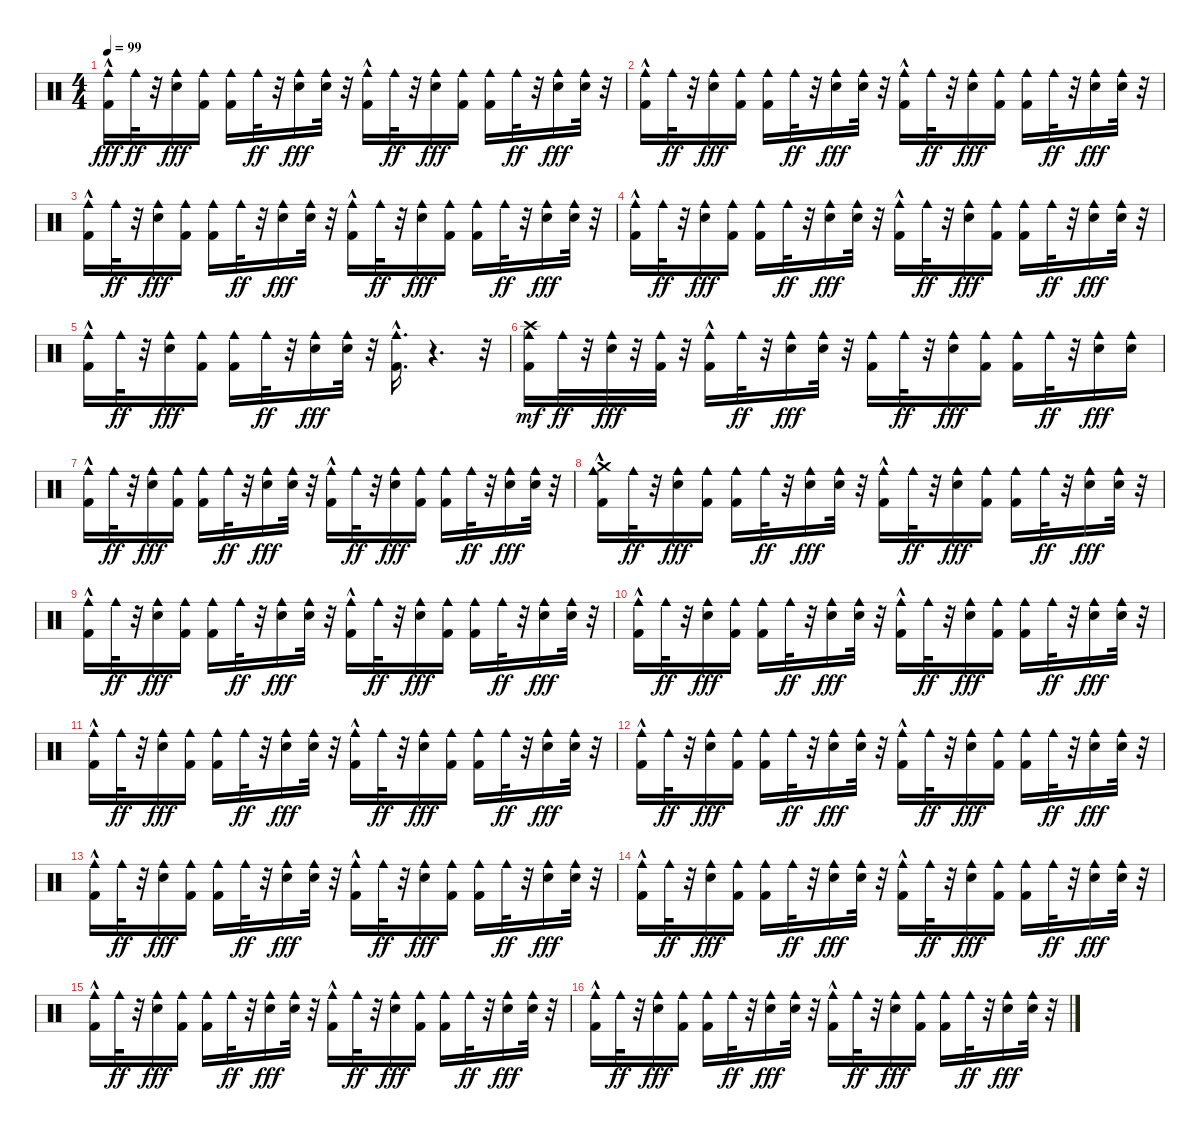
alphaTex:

\track "" {instrument percussion}
\staff {score}
\articulation defaults
\ts (4 4)
\tempo 99
\clef neutral
\ks c
("Cowbell medium (hit)" "Kick (hit) 2"{hac}).16{dy fff} "Cowbell medium (hit)".32{dy ff} r.32 ("Cowbell medium (hit)" "Electric Snare (hit)").16{dy fff} ("Cowbell medium (hit)" "Kick (hit) 2").16 ("Cowbell medium (hit)" "Kick (hit) 2").16 "Cowbell medium (hit)".32{dy ff} r.32 ("Cowbell medium (hit)" "Electric Snare (hit)").16{dy fff} ("Cowbell medium (hit)" "Electric Snare (hit)").32 r.32 ("Cowbell medium (hit)" "Kick (hit) 2"{hac}).16 "Cowbell medium (hit)".32{dy ff} r.32 ("Cowbell medium (hit)" "Electric Snare (hit)").16{dy fff} ("Cowbell medium (hit)" "Kick (hit) 2").16 ("Cowbell medium (hit)" "Kick (hit) 2").16 "Cowbell medium (hit)".32{dy ff} r.32 ("Cowbell medium (hit)" "Electric Snare (hit)").16{dy fff} ("Cowbell medium (hit)" "Electric Snare (hit)").32 r.32 |
("Cowbell medium (hit)" "Kick (hit) 2"{hac}).16 "Cowbell medium (hit)".32{dy ff} r.32 ("Cowbell medium (hit)" "Electric Snare (hit)").16{dy fff} ("Cowbell medium (hit)" "Kick (hit) 2").16 ("Cowbell medium (hit)" "Kick (hit) 2").16 "Cowbell medium (hit)".32{dy ff} r.32 ("Cowbell medium (hit)" "Electric Snare (hit)").16{dy fff} ("Cowbell medium (hit)" "Electric Snare (hit)").32 r.32 ("Cowbell medium (hit)" "Kick (hit) 2"{hac}).16 "Cowbell medium (hit)".32{dy ff} r.32 ("Cowbell medium (hit)" "Electric Snare (hit)").16{dy fff} ("Cowbell medium (hit)" "Kick (hit) 2").16 ("Cowbell medium (hit)" "Kick (hit) 2").16 "Cowbell medium (hit)".32{dy ff} r.32 ("Cowbell medium (hit)" "Electric Snare (hit)").16{dy fff} ("Cowbell medium (hit)" "Electric Snare (hit)").32 r.32 |
("Cowbell medium (hit)" "Kick (hit) 2"{hac}).16 "Cowbell medium (hit)".32{dy ff} r.32 ("Cowbell medium (hit)" "Electric Snare (hit)").16{dy fff} ("Cowbell medium (hit)" "Kick (hit) 2").16 ("Cowbell medium (hit)" "Kick (hit) 2").16 "Cowbell medium (hit)".32{dy ff} r.32 ("Cowbell medium (hit)" "Electric Snare (hit)").16{dy fff} ("Cowbell medium (hit)" "Electric Snare (hit)").32 r.32 ("Cowbell medium (hit)" "Kick (hit) 2"{hac}).16 "Cowbell medium (hit)".32{dy ff} r.32 ("Cowbell medium (hit)" "Electric Snare (hit)").16{dy fff} ("Cowbell medium (hit)" "Kick (hit) 2").16 ("Cowbell medium (hit)" "Kick (hit) 2").16 "Cowbell medium (hit)".32{dy ff} r.32 ("Cowbell medium (hit)" "Electric Snare (hit)").16{dy fff} ("Cowbell medium (hit)" "Electric Snare (hit)").32 r.32 |
("Cowbell medium (hit)" "Kick (hit) 2"{hac}).16 "Cowbell medium (hit)".32{dy ff} r.32 ("Cowbell medium (hit)" "Electric Snare (hit)").16{dy fff} ("Cowbell medium (hit)" "Kick (hit) 2").16 ("Cowbell medium (hit)" "Kick (hit) 2").16 "Cowbell medium (hit)".32{dy ff} r.32 ("Cowbell medium (hit)" "Electric Snare (hit)").16{dy fff} ("Cowbell medium (hit)" "Electric Snare (hit)").32 r.32 ("Cowbell medium (hit)" "Kick (hit) 2"{hac}).16 "Cowbell medium (hit)".32{dy ff} r.32 ("Cowbell medium (hit)" "Electric Snare (hit)").16{dy fff} ("Cowbell medium (hit)" "Kick (hit) 2").16 ("Cowbell medium (hit)" "Kick (hit) 2").16 "Cowbell medium (hit)".32{dy ff} r.32 ("Cowbell medium (hit)" "Electric Snare (hit)").16{dy fff} ("Cowbell medium (hit)" "Electric Snare (hit)").32 r.32 |
("Cowbell medium (hit)" "Kick (hit) 2"{hac}).16 "Cowbell medium (hit)".32{dy ff} r.32 ("Cowbell medium (hit)" "Electric Snare (hit)").16{dy fff} ("Cowbell medium (hit)" "Kick (hit) 2").16 ("Cowbell medium (hit)" "Kick (hit) 2").16 "Cowbell medium (hit)".32{dy ff} r.32 ("Cowbell medium (hit)" "Electric Snare (hit)").16{dy fff} ("Cowbell medium (hit)" "Electric Snare (hit)").32 r.32 ("Cowbell medium (hit)" "Kick (hit) 2"{hac}).16{d} r.4{d} r.32 |
("Cowbell medium (hit)" "Kick (hit) 2" "Crash high (hit)").16{dy mf} "Cowbell medium (hit)".32{dy ff} r.32 ("Cowbell medium (hit)" "Electric Snare (hit)").32{dy fff} r.32 ("Cowbell medium (hit)" "Kick (hit) 2").32 r.32 ("Cowbell medium (hit)" "Kick (hit) 2"{hac}).16 "Cowbell medium (hit)".32{dy ff} r.32 ("Cowbell medium (hit)" "Electric Snare (hit)").16{dy fff} ("Cowbell medium (hit)" "Electric Snare (hit)").32 r.32 ("Cowbell medium (hit)" "Kick (hit) 2").16 "Cowbell medium (hit)".32{dy ff} r.32 ("Cowbell medium (hit)" "Electric Snare (hit)").16{dy fff} ("Cowbell medium (hit)" "Kick (hit) 2").16 ("Cowbell medium (hit)" "Kick (hit) 2").16 "Cowbell medium (hit)".32{dy ff} r.32 ("Cowbell medium (hit)" "Electric Snare (hit)").16{dy fff} ("Cowbell medium (hit)" "Electric Snare (hit)").16 |
("Cowbell medium (hit)" "Kick (hit) 2"{hac}).16 "Cowbell medium (hit)".32{dy ff} r.32 ("Cowbell medium (hit)" "Electric Snare (hit)").16{dy fff} ("Cowbell medium (hit)" "Kick (hit) 2").16 ("Cowbell medium (hit)" "Kick (hit) 2").16 "Cowbell medium (hit)".32{dy ff} r.32 ("Cowbell medium (hit)" "Electric Snare (hit)").16{dy fff} ("Cowbell medium (hit)" "Electric Snare (hit)").32 r.32 ("Cowbell medium (hit)" "Kick (hit) 2"{hac}).16 "Cowbell medium (hit)".32{dy ff} r.32 ("Cowbell medium (hit)" "Electric Snare (hit)").16{dy fff} ("Cowbell medium (hit)" "Kick (hit) 2").16 ("Cowbell medium (hit)" "Kick (hit) 2").16 "Cowbell medium (hit)".32{dy ff} r.32 ("Cowbell medium (hit)" "Electric Snare (hit)").16{dy fff} ("Cowbell medium (hit)" "Electric Snare (hit)").32 r.32 |
("Cowbell medium (hit)" "Kick (hit) 2"{hac} "Crash medium (hit)"{hac}).16 "Cowbell medium (hit)".32{dy ff} r.32 ("Cowbell medium (hit)" "Electric Snare (hit)").16{dy fff} ("Cowbell medium (hit)" "Kick (hit) 2").16 ("Cowbell medium (hit)" "Kick (hit) 2").16 "Cowbell medium (hit)".32{dy ff} r.32 ("Cowbell medium (hit)" "Electric Snare (hit)").16{dy fff} ("Cowbell medium (hit)" "Electric Snare (hit)").32 r.32 ("Cowbell medium (hit)" "Kick (hit) 2"{hac}).16 "Cowbell medium (hit)".32{dy ff} r.32 ("Cowbell medium (hit)" "Electric Snare (hit)").16{dy fff} ("Cowbell medium (hit)" "Kick (hit) 2").16 ("Cowbell medium (hit)" "Kick (hit) 2").16 "Cowbell medium (hit)".32{dy ff} r.32 ("Cowbell medium (hit)" "Electric Snare (hit)").16{dy fff} ("Cowbell medium (hit)" "Electric Snare (hit)").32 r.32 |
("Cowbell medium (hit)" "Kick (hit) 2"{hac}).16 "Cowbell medium (hit)".32{dy ff} r.32 ("Cowbell medium (hit)" "Electric Snare (hit)").16{dy fff} ("Cowbell medium (hit)" "Kick (hit) 2").16 ("Cowbell medium (hit)" "Kick (hit) 2").16 "Cowbell medium (hit)".32{dy ff} r.32 ("Cowbell medium (hit)" "Electric Snare (hit)").16{dy fff} ("Cowbell medium (hit)" "Electric Snare (hit)").32 r.32 ("Cowbell medium (hit)" "Kick (hit) 2"{hac}).16 "Cowbell medium (hit)".32{dy ff} r.32 ("Cowbell medium (hit)" "Electric Snare (hit)").16{dy fff} ("Cowbell medium (hit)" "Kick (hit) 2").16 ("Cowbell medium (hit)" "Kick (hit) 2").16 "Cowbell medium (hit)".32{dy ff} r.32 ("Cowbell medium (hit)" "Electric Snare (hit)").16{dy fff} ("Cowbell medium (hit)" "Electric Snare (hit)").32 r.32 |
("Cowbell medium (hit)" "Kick (hit) 2"{hac}).16 "Cowbell medium (hit)".32{dy ff} r.32 ("Cowbell medium (hit)" "Electric Snare (hit)").16{dy fff} ("Cowbell medium (hit)" "Kick (hit) 2").16 ("Cowbell medium (hit)" "Kick (hit) 2").16 "Cowbell medium (hit)".32{dy ff} r.32 ("Cowbell medium (hit)" "Electric Snare (hit)").16{dy fff} ("Cowbell medium (hit)" "Electric Snare (hit)").32 r.32 ("Cowbell medium (hit)" "Kick (hit) 2"{hac}).16 "Cowbell medium (hit)".32{dy ff} r.32 ("Cowbell medium (hit)" "Electric Snare (hit)").16{dy fff} ("Cowbell medium (hit)" "Kick (hit) 2").16 ("Cowbell medium (hit)" "Kick (hit) 2").16 "Cowbell medium (hit)".32{dy ff} r.32 ("Cowbell medium (hit)" "Electric Snare (hit)").16{dy fff} ("Cowbell medium (hit)" "Electric Snare (hit)").32 r.32 |
("Cowbell medium (hit)" "Kick (hit) 2"{hac}).16 "Cowbell medium (hit)".32{dy ff} r.32 ("Cowbell medium (hit)" "Electric Snare (hit)").16{dy fff} ("Cowbell medium (hit)" "Kick (hit) 2").16 ("Cowbell medium (hit)" "Kick (hit) 2").16 "Cowbell medium (hit)".32{dy ff} r.32 ("Cowbell medium (hit)" "Electric Snare (hit)").16{dy fff} ("Cowbell medium (hit)" "Electric Snare (hit)").32 r.32 ("Cowbell medium (hit)" "Kick (hit) 2"{hac}).16 "Cowbell medium (hit)".32{dy ff} r.32 ("Cowbell medium (hit)" "Electric Snare (hit)").16{dy fff} ("Cowbell medium (hit)" "Kick (hit) 2").16 ("Cowbell medium (hit)" "Kick (hit) 2").16 "Cowbell medium (hit)".32{dy ff} r.32 ("Cowbell medium (hit)" "Electric Snare (hit)").16{dy fff} ("Cowbell medium (hit)" "Electric Snare (hit)").32 r.32 |
("Cowbell medium (hit)" "Kick (hit) 2"{hac}).16 "Cowbell medium (hit)".32{dy ff} r.32 ("Cowbell medium (hit)" "Electric Snare (hit)").16{dy fff} ("Cowbell medium (hit)" "Kick (hit) 2").16 ("Cowbell medium (hit)" "Kick (hit) 2").16 "Cowbell medium (hit)".32{dy ff} r.32 ("Cowbell medium (hit)" "Electric Snare (hit)").16{dy fff} ("Cowbell medium (hit)" "Electric Snare (hit)").32 r.32 ("Cowbell medium (hit)" "Kick (hit) 2"{hac}).16 "Cowbell medium (hit)".32{dy ff} r.32 ("Cowbell medium (hit)" "Electric Snare (hit)").16{dy fff} ("Cowbell medium (hit)" "Kick (hit) 2").16 ("Cowbell medium (hit)" "Kick (hit) 2").16 "Cowbell medium (hit)".32{dy ff} r.32 ("Cowbell medium (hit)" "Electric Snare (hit)").16{dy fff} ("Cowbell medium (hit)" "Electric Snare (hit)").32 r.32 |
("Cowbell medium (hit)" "Kick (hit) 2"{hac}).16 "Cowbell medium (hit)".32{dy ff} r.32 ("Cowbell medium (hit)" "Electric Snare (hit)").16{dy fff} ("Cowbell medium (hit)" "Kick (hit) 2").16 ("Cowbell medium (hit)" "Kick (hit) 2").16 "Cowbell medium (hit)".32{dy ff} r.32 ("Cowbell medium (hit)" "Electric Snare (hit)").16{dy fff} ("Cowbell medium (hit)" "Electric Snare (hit)").32 r.32 ("Cowbell medium (hit)" "Kick (hit) 2"{hac}).16 "Cowbell medium (hit)".32{dy ff} r.32 ("Cowbell medium (hit)" "Electric Snare (hit)").16{dy fff} ("Cowbell medium (hit)" "Kick (hit) 2").16 ("Cowbell medium (hit)" "Kick (hit) 2").16 "Cowbell medium (hit)".32{dy ff} r.32 ("Cowbell medium (hit)" "Electric Snare (hit)").16{dy fff} ("Cowbell medium (hit)" "Electric Snare (hit)").32 r.32 |
("Cowbell medium (hit)" "Kick (hit) 2"{hac}).16 "Cowbell medium (hit)".32{dy ff} r.32 ("Cowbell medium (hit)" "Electric Snare (hit)").16{dy fff} ("Cowbell medium (hit)" "Kick (hit) 2").16 ("Cowbell medium (hit)" "Kick (hit) 2").16 "Cowbell medium (hit)".32{dy ff} r.32 ("Cowbell medium (hit)" "Electric Snare (hit)").16{dy fff} ("Cowbell medium (hit)" "Electric Snare (hit)").32 r.32 ("Cowbell medium (hit)" "Kick (hit) 2"{hac}).16 "Cowbell medium (hit)".32{dy ff} r.32 ("Cowbell medium (hit)" "Electric Snare (hit)").16{dy fff} ("Cowbell medium (hit)" "Kick (hit) 2").16 ("Cowbell medium (hit)" "Kick (hit) 2").16 "Cowbell medium (hit)".32{dy ff} r.32 ("Cowbell medium (hit)" "Electric Snare (hit)").16{dy fff} ("Cowbell medium (hit)" "Electric Snare (hit)").32 r.32 |
("Cowbell medium (hit)" "Kick (hit) 2"{hac}).16 "Cowbell medium (hit)".32{dy ff} r.32 ("Cowbell medium (hit)" "Electric Snare (hit)").16{dy fff} ("Cowbell medium (hit)" "Kick (hit) 2").16 ("Cowbell medium (hit)" "Kick (hit) 2").16 "Cowbell medium (hit)".32{dy ff} r.32 ("Cowbell medium (hit)" "Electric Snare (hit)").16{dy fff} ("Cowbell medium (hit)" "Electric Snare (hit)").32 r.32 ("Cowbell medium (hit)" "Kick (hit) 2"{hac}).16 "Cowbell medium (hit)".32{dy ff} r.32 ("Cowbell medium (hit)" "Electric Snare (hit)").16{dy fff} ("Cowbell medium (hit)" "Kick (hit) 2").16 ("Cowbell medium (hit)" "Kick (hit) 2").16 "Cowbell medium (hit)".32{dy ff} r.32 ("Cowbell medium (hit)" "Electric Snare (hit)").16{dy fff} ("Cowbell medium (hit)" "Electric Snare (hit)").32 r.32 |
("Cowbell medium (hit)" "Kick (hit) 2"{hac}).16 "Cowbell medium (hit)".32{dy ff} r.32 ("Cowbell medium (hit)" "Electric Snare (hit)").16{dy fff} ("Cowbell medium (hit)" "Kick (hit) 2").16 ("Cowbell medium (hit)" "Kick (hit) 2").16 "Cowbell medium (hit)".32{dy ff} r.32 ("Cowbell medium (hit)" "Electric Snare (hit)").16{dy fff} ("Cowbell medium (hit)" "Electric Snare (hit)").32 r.32 ("Cowbell medium (hit)" "Kick (hit) 2"{hac}).16 "Cowbell medium (hit)".32{dy ff} r.32 ("Cowbell medium (hit)" "Electric Snare (hit)").16{dy fff} ("Cowbell medium (hit)" "Kick (hit) 2").16 ("Cowbell medium (hit)" "Kick (hit) 2").16 "Cowbell medium (hit)".32{dy ff} r.32 ("Cowbell medium (hit)" "Electric Snare (hit)").16{dy fff} ("Cowbell medium (hit)" "Electric Snare (hit)").32 r.32
